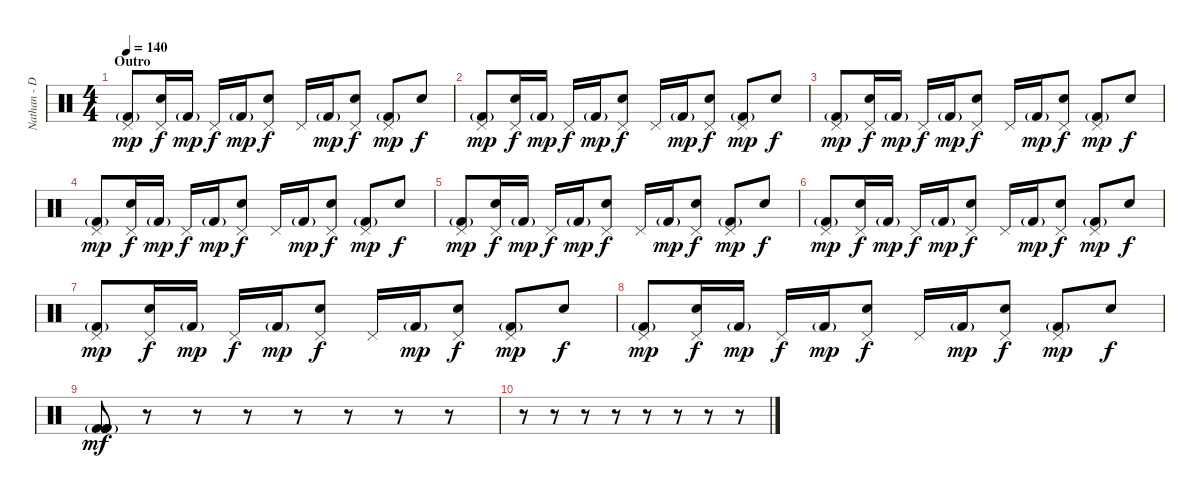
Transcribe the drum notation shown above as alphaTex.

\track ("Nathan - Drums MIDI" "Nathan - D") {instrument percussion}
\staff {score}
\articulation defaults
\ts (4 4)
\section ("" "Outro")
\tempo 140
\clef neutral
\ks c
("Pedal Hi-Hat (hit)" "Kick (hit) 2"{g}).8{dy mp} ("Pedal Hi-Hat (hit)" "Snare (hit) 2").16{dy f} "Kick (hit) 2"{g}.16{dy mp} "Pedal Hi-Hat (hit)".16{dy f} "Kick (hit) 2"{g}.16{dy mp} ("Pedal Hi-Hat (hit)" "Snare (hit) 2").8{dy f} "Pedal Hi-Hat (hit)".16 "Kick (hit) 2"{g}.16{dy mp} ("Pedal Hi-Hat (hit)" "Snare (hit) 2").8{dy f} ("Pedal Hi-Hat (hit)" "Kick (hit) 2"{g}).8{dy mp} "Snare (hit) 2".8{dy f} |
("Pedal Hi-Hat (hit)" "Kick (hit) 2"{g}).8{dy mp} ("Pedal Hi-Hat (hit)" "Snare (hit) 2").16{dy f} "Kick (hit) 2"{g}.16{dy mp} "Pedal Hi-Hat (hit)".16{dy f} "Kick (hit) 2"{g}.16{dy mp} ("Pedal Hi-Hat (hit)" "Snare (hit) 2").8{dy f} "Pedal Hi-Hat (hit)".16 "Kick (hit) 2"{g}.16{dy mp} ("Pedal Hi-Hat (hit)" "Snare (hit) 2").8{dy f} ("Pedal Hi-Hat (hit)" "Kick (hit) 2"{g}).8{dy mp} "Snare (hit) 2".8{dy f} |
("Pedal Hi-Hat (hit)" "Kick (hit) 2"{g}).8{dy mp} ("Pedal Hi-Hat (hit)" "Snare (hit) 2").16{dy f} "Kick (hit) 2"{g}.16{dy mp} "Pedal Hi-Hat (hit)".16{dy f} "Kick (hit) 2"{g}.16{dy mp} ("Pedal Hi-Hat (hit)" "Snare (hit) 2").8{dy f} "Pedal Hi-Hat (hit)".16 "Kick (hit) 2"{g}.16{dy mp} ("Pedal Hi-Hat (hit)" "Snare (hit) 2").8{dy f} ("Pedal Hi-Hat (hit)" "Kick (hit) 2"{g}).8{dy mp} "Snare (hit) 2".8{dy f} |
("Pedal Hi-Hat (hit)" "Kick (hit) 2"{g}).8{dy mp} ("Pedal Hi-Hat (hit)" "Snare (hit) 2").16{dy f} "Kick (hit) 2"{g}.16{dy mp} "Pedal Hi-Hat (hit)".16{dy f} "Kick (hit) 2"{g}.16{dy mp} ("Pedal Hi-Hat (hit)" "Snare (hit) 2").8{dy f} "Pedal Hi-Hat (hit)".16 "Kick (hit) 2"{g}.16{dy mp} ("Pedal Hi-Hat (hit)" "Snare (hit) 2").8{dy f} ("Pedal Hi-Hat (hit)" "Kick (hit) 2"{g}).8{dy mp} "Snare (hit) 2".8{dy f} |
("Pedal Hi-Hat (hit)" "Kick (hit) 2"{g}).8{dy mp} ("Pedal Hi-Hat (hit)" "Snare (hit) 2").16{dy f} "Kick (hit) 2"{g}.16{dy mp} "Pedal Hi-Hat (hit)".16{dy f} "Kick (hit) 2"{g}.16{dy mp} ("Pedal Hi-Hat (hit)" "Snare (hit) 2").8{dy f} "Pedal Hi-Hat (hit)".16 "Kick (hit) 2"{g}.16{dy mp} ("Pedal Hi-Hat (hit)" "Snare (hit) 2").8{dy f} ("Pedal Hi-Hat (hit)" "Kick (hit) 2"{g}).8{dy mp} "Snare (hit) 2".8{dy f} |
("Pedal Hi-Hat (hit)" "Kick (hit) 2"{g}).8{dy mp} ("Pedal Hi-Hat (hit)" "Snare (hit) 2").16{dy f} "Kick (hit) 2"{g}.16{dy mp} "Pedal Hi-Hat (hit)".16{dy f} "Kick (hit) 2"{g}.16{dy mp} ("Pedal Hi-Hat (hit)" "Snare (hit) 2").8{dy f} "Pedal Hi-Hat (hit)".16 "Kick (hit) 2"{g}.16{dy mp} ("Pedal Hi-Hat (hit)" "Snare (hit) 2").8{dy f} ("Pedal Hi-Hat (hit)" "Kick (hit) 2"{g}).8{dy mp} "Snare (hit) 2".8{dy f} |
("Pedal Hi-Hat (hit)" "Kick (hit) 2"{g}).8{dy mp} ("Pedal Hi-Hat (hit)" "Snare (hit) 2").16{dy f} "Kick (hit) 2"{g}.16{dy mp} "Pedal Hi-Hat (hit)".16{dy f} "Kick (hit) 2"{g}.16{dy mp} ("Pedal Hi-Hat (hit)" "Snare (hit) 2").8{dy f} "Pedal Hi-Hat (hit)".16 "Kick (hit) 2"{g}.16{dy mp} ("Pedal Hi-Hat (hit)" "Snare (hit) 2").8{dy f} ("Pedal Hi-Hat (hit)" "Kick (hit) 2"{g}).8{dy mp} "Snare (hit) 2".8{dy f} |
("Pedal Hi-Hat (hit)" "Kick (hit) 2"{g}).8{dy mp} ("Pedal Hi-Hat (hit)" "Snare (hit) 2").16{dy f} "Kick (hit) 2"{g}.16{dy mp} "Pedal Hi-Hat (hit)".16{dy f} "Kick (hit) 2"{g}.16{dy mp} ("Pedal Hi-Hat (hit)" "Snare (hit) 2").8{dy f} "Pedal Hi-Hat (hit)".16 "Kick (hit) 2"{g}.16{dy mp} ("Pedal Hi-Hat (hit)" "Snare (hit) 2").8{dy f} ("Pedal Hi-Hat (hit)" "Kick (hit) 2"{g}).8{dy mp} "Snare (hit) 2".8{dy f} |
("Kick (hit) 2"{g} "Kick (hit) 2"{g} "Kick (hit) 2"{g} "Kick (hit) 2"{g}).8{dy mf} r.8 r.8 r.8 r.8 r.8 r.8 r.8 |
r.8 r.8 r.8 r.8 r.8 r.8 r.8 r.8
